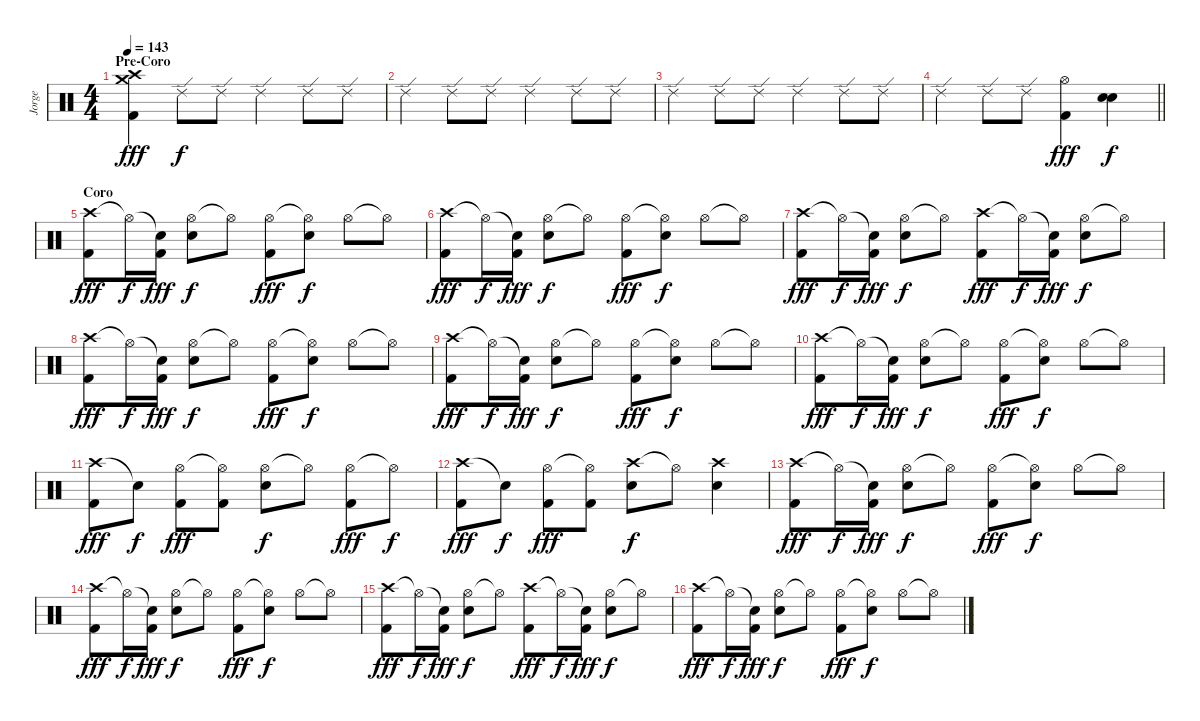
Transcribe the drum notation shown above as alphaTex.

\track ("Jorge" "Jorge") {instrument percussion}
\staff {score}
\articulation defaults
\ts (4 4)
\section ("" "Pre-Coro")
\tempo 143
\clef neutral
\ks c
("Crash high (hit)" "Crash medium (hit)" "Kick (hit) 2").4{dy fff} "Ride (edge) 2".8{dy f} "Ride (edge) 2".8 "Ride (edge) 2".4 "Ride (edge) 2".8 "Ride (edge) 2".8 |
"Ride (edge) 2".4 "Ride (edge) 2".8 "Ride (edge) 2".8 "Ride (edge) 2".4 "Ride (edge) 2".8 "Ride (edge) 2".8 |
"Ride (edge) 2".4 "Ride (edge) 2".8 "Ride (edge) 2".8 "Ride (edge) 2".4 "Ride (edge) 2".8 "Ride (edge) 2".8 |
\barLineRight lightlight "Ride (edge) 2".4 "Ride (edge) 2".8 "Ride (edge) 2".8
("Hi-Hat (open)" "Kick (hit) 2").4{dy fff} ("Electric Snare (hit)" "Electric Snare (hit)").4{bd 240 dy f} |
\section ("" "Coro")
("Crash high (hit)" "Kick (hit) 2").8{dy fff} "Hi-Hat (open)"{t}.16{dy f} ("Snare (hit)"{t} "Kick (hit) 2").16{dy fff} ("Hi-Hat (open)" "Electric Snare (hit)").8{dy f} "Hi-Hat (open)"{t}.8 ("Hi-Hat (open)" "Kick (hit) 2").8{dy fff} ("Hi-Hat (open)"{t} "Electric Snare (hit)").8{dy f} "Hi-Hat (open)".8 "Hi-Hat (open)"{t}.8 |
("Crash high (hit)" "Kick (hit) 2").8{dy fff} "Hi-Hat (open)"{t}.16{dy f} ("Snare (hit)"{t} "Kick (hit) 2").16{dy fff} ("Hi-Hat (open)" "Electric Snare (hit)").8{dy f} "Hi-Hat (open)"{t}.8 ("Hi-Hat (open)" "Kick (hit) 2").8{dy fff} ("Hi-Hat (open)"{t} "Electric Snare (hit)").8{dy f} "Hi-Hat (open)".8 "Hi-Hat (open)"{t}.8 |
("Crash high (hit)" "Kick (hit) 2").8{dy fff} "Hi-Hat (open)"{t}.16{dy f} ("Snare (hit)"{t} "Kick (hit) 2").16{dy fff} ("Hi-Hat (open)" "Electric Snare (hit)").8{dy f} "Hi-Hat (open)"{t}.8 ("Crash high (hit)" "Kick (hit) 2").8{dy fff} "Hi-Hat (open)"{t}.16{dy f} ("Snare (hit)"{t} "Kick (hit) 2").16{dy fff} ("Hi-Hat (open)" "Electric Snare (hit)").8{dy f} "Hi-Hat (open)"{t}.8 |
("Crash high (hit)" "Kick (hit) 2").8{dy fff} "Hi-Hat (open)"{t}.16{dy f} ("Snare (hit)"{t} "Kick (hit) 2").16{dy fff} ("Hi-Hat (open)" "Electric Snare (hit)").8{dy f} "Hi-Hat (open)"{t}.8 ("Hi-Hat (open)" "Kick (hit) 2").8{dy fff} ("Hi-Hat (open)"{t} "Electric Snare (hit)").8{dy f} "Hi-Hat (open)".8 "Hi-Hat (open)"{t}.8 |
("Crash high (hit)" "Kick (hit) 2").8{dy fff} "Hi-Hat (open)"{t}.16{dy f} ("Snare (hit)"{t} "Kick (hit) 2").16{dy fff} ("Hi-Hat (open)" "Electric Snare (hit)").8{dy f} "Hi-Hat (open)"{t}.8 ("Hi-Hat (open)" "Kick (hit) 2").8{dy fff} ("Hi-Hat (open)"{t} "Electric Snare (hit)").8{dy f} "Hi-Hat (open)".8 "Hi-Hat (open)"{t}.8 |
("Crash high (hit)" "Kick (hit) 2").8{dy fff} "Hi-Hat (open)"{t}.16{dy f} ("Snare (hit)"{t} "Kick (hit) 2").16{dy fff} ("Hi-Hat (open)" "Electric Snare (hit)").8{dy f} "Hi-Hat (open)"{t}.8 ("Hi-Hat (open)" "Kick (hit) 2").8{dy fff} ("Hi-Hat (open)"{t} "Electric Snare (hit)").8{dy f} "Hi-Hat (open)".8 "Hi-Hat (open)"{t}.8 |
("Crash high (hit)" "Kick (hit) 2").8{dy fff} "Snare (hit)"{t}.8{dy f} ("Hi-Hat (open)" "Kick (hit) 2").8{dy fff} ("Hi-Hat (open)"{t} "Kick (hit) 2").8 ("Hi-Hat (open)" "Electric Snare (hit)").8{dy f} "Hi-Hat (open)"{t}.8 ("Hi-Hat (open)" "Kick (hit) 2").8{dy fff} "Hi-Hat (open)"{t}.8{dy f} |
("Crash high (hit)" "Kick (hit) 2").8{dy fff} "Snare (hit)"{t}.8{dy f} ("Hi-Hat (open)" "Kick (hit) 2").8{dy fff} ("Hi-Hat (open)"{t} "Kick (hit) 2").8 ("Crash high (hit)" "Electric Snare (hit)").8{dy f} "Hi-Hat (open)"{t}.8 ("Crash high (hit)" "Electric Snare (hit)").4 |
("Crash high (hit)" "Kick (hit) 2").8{dy fff} "Hi-Hat (open)"{t}.16{dy f} ("Snare (hit)"{t} "Kick (hit) 2").16{dy fff} ("Hi-Hat (open)" "Electric Snare (hit)").8{dy f} "Hi-Hat (open)"{t}.8 ("Hi-Hat (open)" "Kick (hit) 2").8{dy fff} ("Hi-Hat (open)"{t} "Electric Snare (hit)").8{dy f} "Hi-Hat (open)".8 "Hi-Hat (open)"{t}.8 |
("Crash high (hit)" "Kick (hit) 2").8{dy fff} "Hi-Hat (open)"{t}.16{dy f} ("Snare (hit)"{t} "Kick (hit) 2").16{dy fff} ("Hi-Hat (open)" "Electric Snare (hit)").8{dy f} "Hi-Hat (open)"{t}.8 ("Hi-Hat (open)" "Kick (hit) 2").8{dy fff} ("Hi-Hat (open)"{t} "Electric Snare (hit)").8{dy f} "Hi-Hat (open)".8 "Hi-Hat (open)"{t}.8 |
("Crash high (hit)" "Kick (hit) 2").8{dy fff} "Hi-Hat (open)"{t}.16{dy f} ("Snare (hit)"{t} "Kick (hit) 2").16{dy fff} ("Hi-Hat (open)" "Electric Snare (hit)").8{dy f} "Hi-Hat (open)"{t}.8 ("Crash high (hit)" "Kick (hit) 2").8{dy fff} "Hi-Hat (open)"{t}.16{dy f} ("Snare (hit)"{t} "Kick (hit) 2").16{dy fff} ("Hi-Hat (open)" "Electric Snare (hit)").8{dy f} "Hi-Hat (open)"{t}.8 |
("Crash high (hit)" "Kick (hit) 2").8{dy fff} "Hi-Hat (open)"{t}.16{dy f} ("Snare (hit)"{t} "Kick (hit) 2").16{dy fff} ("Hi-Hat (open)" "Electric Snare (hit)").8{dy f} "Hi-Hat (open)"{t}.8 ("Hi-Hat (open)" "Kick (hit) 2").8{dy fff} ("Hi-Hat (open)"{t} "Electric Snare (hit)").8{dy f} "Hi-Hat (open)".8 "Hi-Hat (open)"{t}.8
